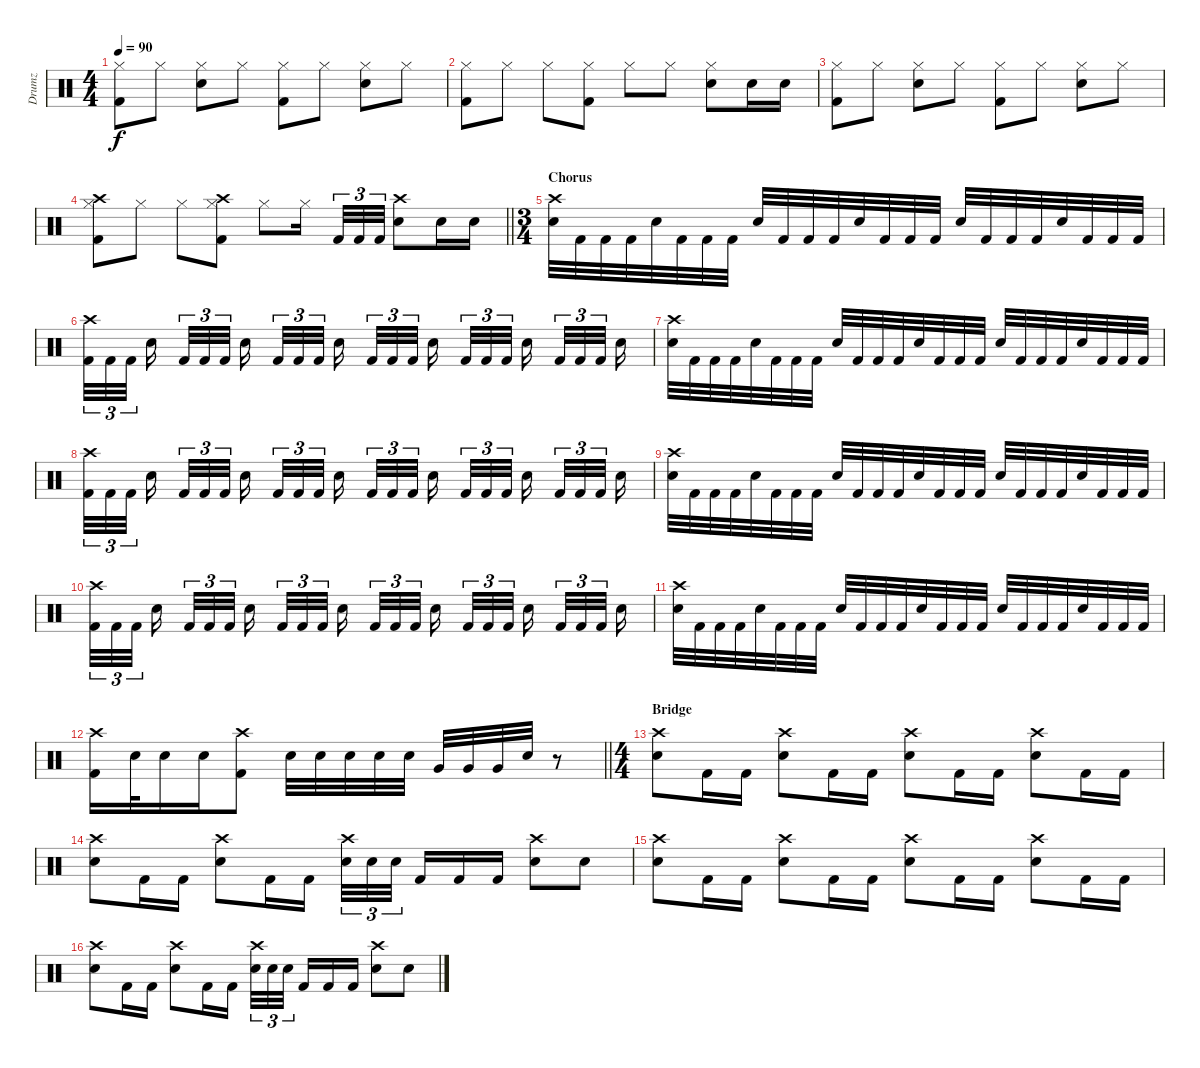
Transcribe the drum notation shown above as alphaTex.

\track ("Drumz" "Drumz") {instrument percussion}
\staff {score}
\articulation defaults
\ts (4 4)
\tempo 90
\clef neutral
\ks c
("Hi-Hat (closed)" "Kick (hit) 2").8{dy f} "Hi-Hat (closed)".8 ("Hi-Hat (closed)" "Snare (hit) 2").8 "Hi-Hat (closed)".8 ("Hi-Hat (closed)" "Kick (hit) 2").8 "Hi-Hat (closed)".8 ("Hi-Hat (closed)" "Snare (hit) 2").8 "Hi-Hat (closed)".8 |
("Hi-Hat (closed)" "Kick (hit) 2").8 "Hi-Hat (closed)".8 "Hi-Hat (closed)".8 ("Hi-Hat (closed)" "Kick (hit) 2").8 "Hi-Hat (closed)".8 "Hi-Hat (closed)".8 ("Hi-Hat (closed)" "Snare (hit) 2").8 "Snare (hit) 2".16 "Snare (hit) 2".16 |
("Hi-Hat (closed)" "Kick (hit) 2").8 "Hi-Hat (closed)".8 ("Hi-Hat (closed)" "Snare (hit) 2").8 "Hi-Hat (closed)".8 ("Hi-Hat (closed)" "Kick (hit) 2").8 "Hi-Hat (closed)".8 ("Hi-Hat (closed)" "Snare (hit) 2").8 "Hi-Hat (closed)".8 |
\barLineRight lightlight
("Hi-Hat (closed)" "Crash high (hit)" "Kick (hit) 2").8 "Hi-Hat (closed)".8 "Hi-Hat (closed)".8 ("Hi-Hat (closed)" "Crash high (hit)" "Kick (hit) 2").8 "Hi-Hat (closed)".8 "Hi-Hat (closed)".16{beam splitsecondary} "Kick (hit) 2".32{tu (3 2)} "Kick (hit) 2".32{tu (3 2)} "Kick (hit) 2".32{tu (3 2)} ("Crash high (hit)" "Snare (hit) 2").8 "Snare (hit) 2".16 "Snare (hit) 2".16 |
\ts (3 4)
\section ("" "Chorus")
("Crash high (hit)" "Snare (hit) 2").32 "Kick (hit) 2".32 "Kick (hit) 2".32 "Kick (hit) 2".32 "Snare (hit) 2".32 "Kick (hit) 2".32 "Kick (hit) 2".32 "Kick (hit) 2".32 "Snare (hit) 2".32 "Kick (hit) 2".32 "Kick (hit) 2".32 "Kick (hit) 2".32 "Snare (hit) 2".32 "Kick (hit) 2".32 "Kick (hit) 2".32 "Kick (hit) 2".32 "Snare (hit) 2".32 "Kick (hit) 2".32 "Kick (hit) 2".32 "Kick (hit) 2".32 "Snare (hit) 2".32 "Kick (hit) 2".32 "Kick (hit) 2".32 "Kick (hit) 2".32 |
("Crash high (hit)" "Kick (hit) 2").32{tu (3 2)} "Kick (hit) 2".32{tu (3 2)} "Kick (hit) 2".32{tu (3 2) beam splitsecondary} "Snare (hit) 2".16{beam splitsecondary} "Kick (hit) 2".32{tu (3 2)} "Kick (hit) 2".32{tu (3 2)} "Kick (hit) 2".32{tu (3 2) beam splitsecondary} "Snare (hit) 2".16 "Kick (hit) 2".32{tu (3 2)} "Kick (hit) 2".32{tu (3 2)} "Kick (hit) 2".32{tu (3 2) beam splitsecondary} "Snare (hit) 2".16{beam splitsecondary} "Kick (hit) 2".32{tu (3 2)} "Kick (hit) 2".32{tu (3 2)} "Kick (hit) 2".32{tu (3 2) beam splitsecondary} "Snare (hit) 2".16 "Kick (hit) 2".32{tu (3 2)} "Kick (hit) 2".32{tu (3 2)} "Kick (hit) 2".32{tu (3 2) beam splitsecondary} "Snare (hit) 2".16{beam splitsecondary} "Kick (hit) 2".32{tu (3 2)} "Kick (hit) 2".32{tu (3 2)} "Kick (hit) 2".32{tu (3 2) beam splitsecondary} "Snare (hit) 2".16 |
("Crash high (hit)" "Snare (hit) 2").32 "Kick (hit) 2".32 "Kick (hit) 2".32 "Kick (hit) 2".32 "Snare (hit) 2".32 "Kick (hit) 2".32 "Kick (hit) 2".32 "Kick (hit) 2".32 "Snare (hit) 2".32 "Kick (hit) 2".32 "Kick (hit) 2".32 "Kick (hit) 2".32 "Snare (hit) 2".32 "Kick (hit) 2".32 "Kick (hit) 2".32 "Kick (hit) 2".32 "Snare (hit) 2".32 "Kick (hit) 2".32 "Kick (hit) 2".32 "Kick (hit) 2".32 "Snare (hit) 2".32 "Kick (hit) 2".32 "Kick (hit) 2".32 "Kick (hit) 2".32 |
("Crash high (hit)" "Kick (hit) 2").32{tu (3 2)} "Kick (hit) 2".32{tu (3 2)} "Kick (hit) 2".32{tu (3 2) beam splitsecondary} "Snare (hit) 2".16{beam splitsecondary} "Kick (hit) 2".32{tu (3 2)} "Kick (hit) 2".32{tu (3 2)} "Kick (hit) 2".32{tu (3 2) beam splitsecondary} "Snare (hit) 2".16 "Kick (hit) 2".32{tu (3 2)} "Kick (hit) 2".32{tu (3 2)} "Kick (hit) 2".32{tu (3 2) beam splitsecondary} "Snare (hit) 2".16{beam splitsecondary} "Kick (hit) 2".32{tu (3 2)} "Kick (hit) 2".32{tu (3 2)} "Kick (hit) 2".32{tu (3 2) beam splitsecondary} "Snare (hit) 2".16 "Kick (hit) 2".32{tu (3 2)} "Kick (hit) 2".32{tu (3 2)} "Kick (hit) 2".32{tu (3 2) beam splitsecondary} "Snare (hit) 2".16{beam splitsecondary} "Kick (hit) 2".32{tu (3 2)} "Kick (hit) 2".32{tu (3 2)} "Kick (hit) 2".32{tu (3 2) beam splitsecondary} "Snare (hit) 2".16 |
("Crash high (hit)" "Snare (hit) 2").32 "Kick (hit) 2".32 "Kick (hit) 2".32 "Kick (hit) 2".32 "Snare (hit) 2".32 "Kick (hit) 2".32 "Kick (hit) 2".32 "Kick (hit) 2".32 "Snare (hit) 2".32 "Kick (hit) 2".32 "Kick (hit) 2".32 "Kick (hit) 2".32 "Snare (hit) 2".32 "Kick (hit) 2".32 "Kick (hit) 2".32 "Kick (hit) 2".32 "Snare (hit) 2".32 "Kick (hit) 2".32 "Kick (hit) 2".32 "Kick (hit) 2".32 "Snare (hit) 2".32 "Kick (hit) 2".32 "Kick (hit) 2".32 "Kick (hit) 2".32 |
("Crash high (hit)" "Kick (hit) 2").32{tu (3 2)} "Kick (hit) 2".32{tu (3 2)} "Kick (hit) 2".32{tu (3 2) beam splitsecondary} "Snare (hit) 2".16{beam splitsecondary} "Kick (hit) 2".32{tu (3 2)} "Kick (hit) 2".32{tu (3 2)} "Kick (hit) 2".32{tu (3 2) beam splitsecondary} "Snare (hit) 2".16 "Kick (hit) 2".32{tu (3 2)} "Kick (hit) 2".32{tu (3 2)} "Kick (hit) 2".32{tu (3 2) beam splitsecondary} "Snare (hit) 2".16{beam splitsecondary} "Kick (hit) 2".32{tu (3 2)} "Kick (hit) 2".32{tu (3 2)} "Kick (hit) 2".32{tu (3 2) beam splitsecondary} "Snare (hit) 2".16 "Kick (hit) 2".32{tu (3 2)} "Kick (hit) 2".32{tu (3 2)} "Kick (hit) 2".32{tu (3 2) beam splitsecondary} "Snare (hit) 2".16{beam splitsecondary} "Kick (hit) 2".32{tu (3 2)} "Kick (hit) 2".32{tu (3 2)} "Kick (hit) 2".32{tu (3 2) beam splitsecondary} "Snare (hit) 2".16 |
("Crash high (hit)" "Snare (hit) 2").32 "Kick (hit) 2".32 "Kick (hit) 2".32 "Kick (hit) 2".32 "Snare (hit) 2".32 "Kick (hit) 2".32 "Kick (hit) 2".32 "Kick (hit) 2".32 "Snare (hit) 2".32 "Kick (hit) 2".32 "Kick (hit) 2".32 "Kick (hit) 2".32 "Snare (hit) 2".32 "Kick (hit) 2".32 "Kick (hit) 2".32 "Kick (hit) 2".32 "Snare (hit) 2".32 "Kick (hit) 2".32 "Kick (hit) 2".32 "Kick (hit) 2".32 "Snare (hit) 2".32 "Kick (hit) 2".32 "Kick (hit) 2".32 "Kick (hit) 2".32 |
\barLineRight lightlight
("Crash high (hit)" "Kick (hit) 2").16 "Snare (hit) 2".32 "Snare (hit) 2".16 "Snare (hit) 2".16 ("Crash high (hit)" "Kick (hit) 2").8 "Snare (hit) 2".32 "Snare (hit) 2".32 "Snare (hit) 2".32 "Snare (hit) 2".32 "Snare (hit) 2".32 "Very Low Tom (hit)".32 "Very Low Tom (hit)".32 "Very Low Tom (hit)".32 "Snare (hit) 2".32 r.8 |
\ts (4 4)
\section ("" "Bridge")
("Crash high (hit)" "Snare (hit) 2").8 "Kick (hit) 2".16 "Kick (hit) 2".16 ("Crash high (hit)" "Snare (hit) 2").8 "Kick (hit) 2".16 "Kick (hit) 2".16 ("Crash high (hit)" "Snare (hit) 2").8 "Kick (hit) 2".16 "Kick (hit) 2".16 ("Crash high (hit)" "Snare (hit) 2").8 "Kick (hit) 2".16 "Kick (hit) 2".16 |
("Crash high (hit)" "Snare (hit) 2").8 "Kick (hit) 2".16 "Kick (hit) 2".16 ("Crash high (hit)" "Snare (hit) 2").8 "Kick (hit) 2".16 "Kick (hit) 2".16 ("Crash high (hit)" "Snare (hit) 2").32{tu (3 2)} "Snare (hit) 2".32{tu (3 2)} "Snare (hit) 2".32{tu (3 2) beam splitsecondary} "Kick (hit) 2".16 "Kick (hit) 2".16 "Kick (hit) 2".16 ("Crash high (hit)" "Snare (hit) 2").8 "Snare (hit) 2".8 |
("Crash high (hit)" "Snare (hit) 2").8 "Kick (hit) 2".16 "Kick (hit) 2".16 ("Crash high (hit)" "Snare (hit) 2").8 "Kick (hit) 2".16 "Kick (hit) 2".16 ("Crash high (hit)" "Snare (hit) 2").8 "Kick (hit) 2".16 "Kick (hit) 2".16 ("Crash high (hit)" "Snare (hit) 2").8 "Kick (hit) 2".16 "Kick (hit) 2".16 |
("Crash high (hit)" "Snare (hit) 2").8 "Kick (hit) 2".16 "Kick (hit) 2".16 ("Crash high (hit)" "Snare (hit) 2").8 "Kick (hit) 2".16 "Kick (hit) 2".16 ("Crash high (hit)" "Snare (hit) 2").32{tu (3 2)} "Snare (hit) 2".32{tu (3 2)} "Snare (hit) 2".32{tu (3 2) beam splitsecondary} "Kick (hit) 2".16 "Kick (hit) 2".16 "Kick (hit) 2".16 ("Crash high (hit)" "Snare (hit) 2").8 "Snare (hit) 2".8
